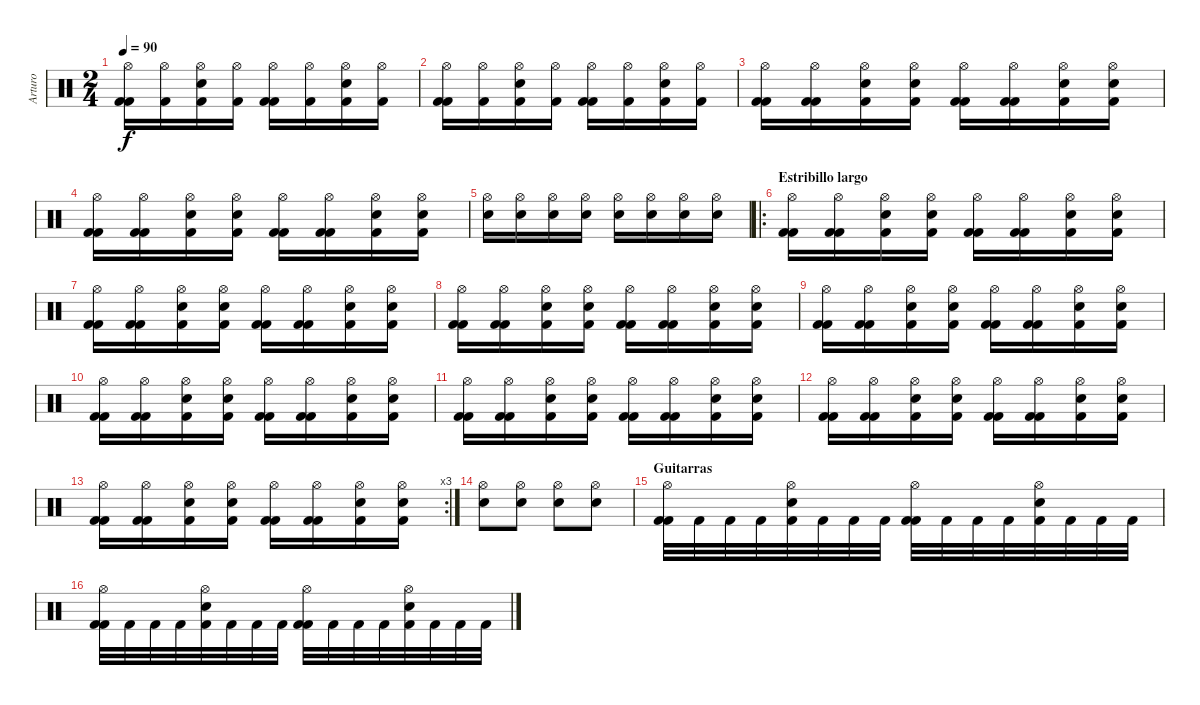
\track ("Arturo" "Arturo") {instrument percussion}
\staff {score}
\articulation defaults
\ts (2 4)
\tempo 90
\clef neutral
\ks c
("Hi-Hat (open)" "Kick (hit) 2" "Kick (hit) 2").16{dy f} ("Hi-Hat (open)" "Kick (hit) 2").16 ("Hi-Hat (open)" "Electric Snare (hit)" "Kick (hit) 2").16 ("Hi-Hat (open)" "Kick (hit) 2").16 ("Hi-Hat (open)" "Kick (hit) 2" "Kick (hit) 2").16 ("Hi-Hat (open)" "Kick (hit) 2").16 ("Hi-Hat (open)" "Electric Snare (hit)" "Kick (hit) 2").16 ("Hi-Hat (open)" "Kick (hit) 2").16 |
("Hi-Hat (open)" "Kick (hit) 2" "Kick (hit) 2").16 ("Hi-Hat (open)" "Kick (hit) 2").16 ("Hi-Hat (open)" "Electric Snare (hit)" "Kick (hit) 2").16 ("Hi-Hat (open)" "Kick (hit) 2").16 ("Hi-Hat (open)" "Kick (hit) 2" "Kick (hit) 2").16 ("Hi-Hat (open)" "Kick (hit) 2").16 ("Hi-Hat (open)" "Electric Snare (hit)" "Kick (hit) 2").16 ("Hi-Hat (open)" "Kick (hit) 2").16 |
("Hi-Hat (open)" "Kick (hit) 2" "Kick (hit) 2").16 ("Hi-Hat (open)" "Kick (hit) 2" "Kick (hit) 2").16 ("Hi-Hat (open)" "Electric Snare (hit)" "Kick (hit) 2").16 ("Hi-Hat (open)" "Electric Snare (hit)" "Kick (hit) 2").16 ("Hi-Hat (open)" "Kick (hit) 2" "Kick (hit) 2").16 ("Hi-Hat (open)" "Kick (hit) 2" "Kick (hit) 2").16 ("Hi-Hat (open)" "Electric Snare (hit)" "Kick (hit) 2").16 ("Hi-Hat (open)" "Electric Snare (hit)" "Kick (hit) 2").16 |
("Hi-Hat (open)" "Kick (hit) 2" "Kick (hit) 2").16 ("Hi-Hat (open)" "Kick (hit) 2" "Kick (hit) 2").16 ("Hi-Hat (open)" "Electric Snare (hit)" "Kick (hit) 2").16 ("Hi-Hat (open)" "Electric Snare (hit)" "Kick (hit) 2").16 ("Hi-Hat (open)" "Kick (hit) 2" "Kick (hit) 2").16 ("Hi-Hat (open)" "Kick (hit) 2" "Kick (hit) 2").16 ("Hi-Hat (open)" "Electric Snare (hit)" "Kick (hit) 2").16 ("Hi-Hat (open)" "Electric Snare (hit)" "Kick (hit) 2").16 |
("Hi-Hat (open)" "Electric Snare (hit)").16 ("Hi-Hat (open)" "Electric Snare (hit)").16 ("Hi-Hat (open)" "Electric Snare (hit)").16 ("Hi-Hat (open)" "Electric Snare (hit)").16 ("Hi-Hat (open)" "Electric Snare (hit)").16 ("Hi-Hat (open)" "Electric Snare (hit)").16 ("Hi-Hat (open)" "Electric Snare (hit)").16 ("Hi-Hat (open)" "Electric Snare (hit)").16 |
\ro
\section ("" "Estribillo largo")
("Hi-Hat (open)" "Kick (hit) 2" "Kick (hit) 2").16 ("Hi-Hat (open)" "Kick (hit) 2" "Kick (hit) 2").16 ("Hi-Hat (open)" "Electric Snare (hit)" "Kick (hit) 2").16 ("Hi-Hat (open)" "Electric Snare (hit)" "Kick (hit) 2").16 ("Hi-Hat (open)" "Kick (hit) 2" "Kick (hit) 2").16 ("Hi-Hat (open)" "Kick (hit) 2" "Kick (hit) 2").16 ("Hi-Hat (open)" "Electric Snare (hit)" "Kick (hit) 2").16 ("Hi-Hat (open)" "Electric Snare (hit)" "Kick (hit) 2").16 |
("Hi-Hat (open)" "Kick (hit) 2" "Kick (hit) 2").16 ("Hi-Hat (open)" "Kick (hit) 2" "Kick (hit) 2").16 ("Hi-Hat (open)" "Electric Snare (hit)" "Kick (hit) 2").16 ("Hi-Hat (open)" "Electric Snare (hit)" "Kick (hit) 2").16 ("Hi-Hat (open)" "Kick (hit) 2" "Kick (hit) 2").16 ("Hi-Hat (open)" "Kick (hit) 2" "Kick (hit) 2").16 ("Hi-Hat (open)" "Electric Snare (hit)" "Kick (hit) 2").16 ("Hi-Hat (open)" "Electric Snare (hit)" "Kick (hit) 2").16 |
("Hi-Hat (open)" "Kick (hit) 2" "Kick (hit) 2").16 ("Hi-Hat (open)" "Kick (hit) 2" "Kick (hit) 2").16 ("Hi-Hat (open)" "Electric Snare (hit)" "Kick (hit) 2").16 ("Hi-Hat (open)" "Electric Snare (hit)" "Kick (hit) 2").16 ("Hi-Hat (open)" "Kick (hit) 2" "Kick (hit) 2").16 ("Hi-Hat (open)" "Kick (hit) 2" "Kick (hit) 2").16 ("Hi-Hat (open)" "Electric Snare (hit)" "Kick (hit) 2").16 ("Hi-Hat (open)" "Electric Snare (hit)" "Kick (hit) 2").16 |
("Hi-Hat (open)" "Kick (hit) 2" "Kick (hit) 2").16 ("Hi-Hat (open)" "Kick (hit) 2" "Kick (hit) 2").16 ("Hi-Hat (open)" "Electric Snare (hit)" "Kick (hit) 2").16 ("Hi-Hat (open)" "Electric Snare (hit)" "Kick (hit) 2").16 ("Hi-Hat (open)" "Kick (hit) 2" "Kick (hit) 2").16 ("Hi-Hat (open)" "Kick (hit) 2" "Kick (hit) 2").16 ("Hi-Hat (open)" "Electric Snare (hit)" "Kick (hit) 2").16 ("Hi-Hat (open)" "Electric Snare (hit)" "Kick (hit) 2").16 |
("Hi-Hat (open)" "Kick (hit) 2" "Kick (hit) 2").16 ("Hi-Hat (open)" "Kick (hit) 2" "Kick (hit) 2").16 ("Hi-Hat (open)" "Electric Snare (hit)" "Kick (hit) 2").16 ("Hi-Hat (open)" "Electric Snare (hit)" "Kick (hit) 2").16 ("Hi-Hat (open)" "Kick (hit) 2" "Kick (hit) 2").16 ("Hi-Hat (open)" "Kick (hit) 2" "Kick (hit) 2").16 ("Hi-Hat (open)" "Electric Snare (hit)" "Kick (hit) 2").16 ("Hi-Hat (open)" "Electric Snare (hit)" "Kick (hit) 2").16 |
("Hi-Hat (open)" "Kick (hit) 2" "Kick (hit) 2").16 ("Hi-Hat (open)" "Kick (hit) 2" "Kick (hit) 2").16 ("Hi-Hat (open)" "Electric Snare (hit)" "Kick (hit) 2").16 ("Hi-Hat (open)" "Electric Snare (hit)" "Kick (hit) 2").16 ("Hi-Hat (open)" "Kick (hit) 2" "Kick (hit) 2").16 ("Hi-Hat (open)" "Kick (hit) 2" "Kick (hit) 2").16 ("Hi-Hat (open)" "Electric Snare (hit)" "Kick (hit) 2").16 ("Hi-Hat (open)" "Electric Snare (hit)" "Kick (hit) 2").16 |
("Hi-Hat (open)" "Kick (hit) 2" "Kick (hit) 2").16 ("Hi-Hat (open)" "Kick (hit) 2" "Kick (hit) 2").16 ("Hi-Hat (open)" "Electric Snare (hit)" "Kick (hit) 2").16 ("Hi-Hat (open)" "Electric Snare (hit)" "Kick (hit) 2").16 ("Hi-Hat (open)" "Kick (hit) 2" "Kick (hit) 2").16 ("Hi-Hat (open)" "Kick (hit) 2" "Kick (hit) 2").16 ("Hi-Hat (open)" "Electric Snare (hit)" "Kick (hit) 2").16 ("Hi-Hat (open)" "Electric Snare (hit)" "Kick (hit) 2").16 |
\rc 3
("Hi-Hat (open)" "Kick (hit) 2" "Kick (hit) 2").16 ("Hi-Hat (open)" "Kick (hit) 2" "Kick (hit) 2").16 ("Hi-Hat (open)" "Electric Snare (hit)" "Kick (hit) 2").16 ("Hi-Hat (open)" "Electric Snare (hit)" "Kick (hit) 2").16 ("Hi-Hat (open)" "Kick (hit) 2" "Kick (hit) 2").16 ("Hi-Hat (open)" "Kick (hit) 2" "Kick (hit) 2").16 ("Hi-Hat (open)" "Electric Snare (hit)" "Kick (hit) 2").16 ("Hi-Hat (open)" "Electric Snare (hit)" "Kick (hit) 2").16 |
("Hi-Hat (open)" "Electric Snare (hit)").8 ("Hi-Hat (open)" "Electric Snare (hit)").8 ("Hi-Hat (open)" "Electric Snare (hit)").8 ("Hi-Hat (open)" "Electric Snare (hit)").8 |
\section ("" "Guitarras")
("Hi-Hat (open)" "Kick (hit) 2" "Kick (hit) 2").32 "Kick (hit) 2".32 "Kick (hit) 2".32 "Kick (hit) 2".32 ("Hi-Hat (open)" "Electric Snare (hit)" "Kick (hit) 2").32 "Kick (hit) 2".32 "Kick (hit) 2".32 "Kick (hit) 2".32 ("Hi-Hat (open)" "Kick (hit) 2" "Kick (hit) 2").32 "Kick (hit) 2".32 "Kick (hit) 2".32 "Kick (hit) 2".32 ("Hi-Hat (open)" "Electric Snare (hit)" "Kick (hit) 2").32 "Kick (hit) 2".32 "Kick (hit) 2".32 "Kick (hit) 2".32 |
("Hi-Hat (open)" "Kick (hit) 2" "Kick (hit) 2").32 "Kick (hit) 2".32 "Kick (hit) 2".32 "Kick (hit) 2".32 ("Hi-Hat (open)" "Electric Snare (hit)" "Kick (hit) 2").32 "Kick (hit) 2".32 "Kick (hit) 2".32 "Kick (hit) 2".32 ("Hi-Hat (open)" "Kick (hit) 2" "Kick (hit) 2").32 "Kick (hit) 2".32 "Kick (hit) 2".32 "Kick (hit) 2".32 ("Hi-Hat (open)" "Electric Snare (hit)" "Kick (hit) 2").32 "Kick (hit) 2".32 "Kick (hit) 2".32 "Kick (hit) 2".32
